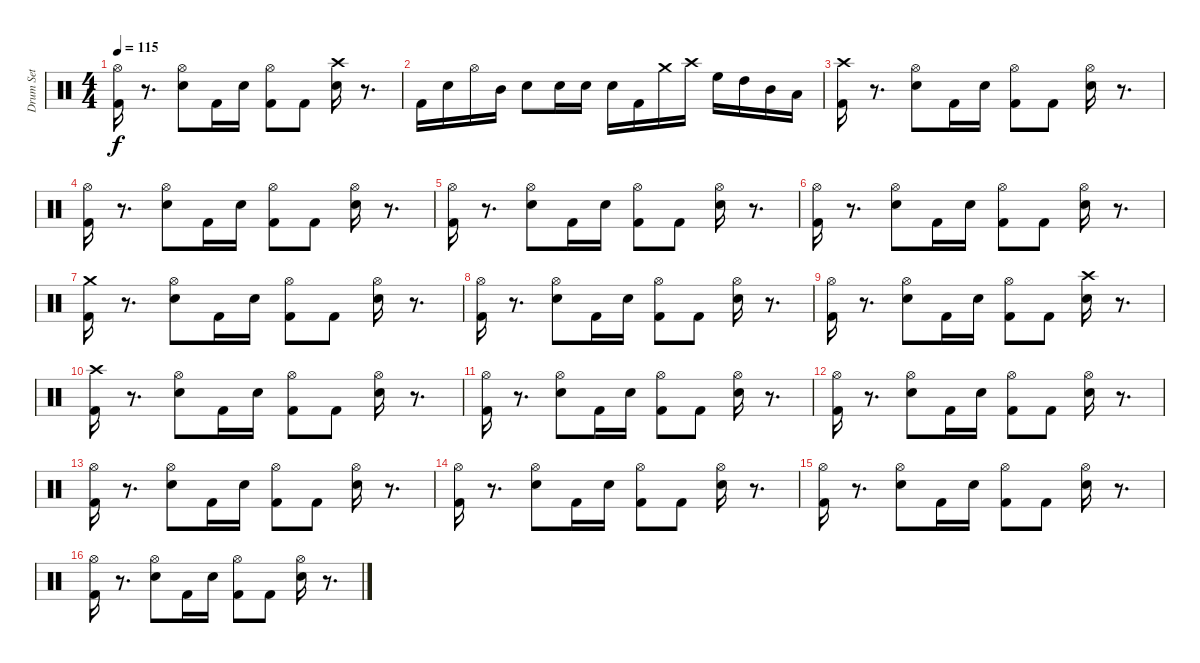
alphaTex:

\track ("Drum Set" "Drum Set") {instrument percussion}
\staff {score}
\articulation defaults
\ts (4 4)
\tempo 115
\clef neutral
\ks c
("Hi-Hat (open)" "Kick (hit) 2").16{dy f} r.8{d} ("Hi-Hat (open)" "Electric Snare (hit)").8 "Kick (hit) 2".16 "Electric Snare (hit)".16 ("Hi-Hat (open)" "Kick (hit) 2").8 "Kick (hit) 2".8 ("Crash high (hit)" "Electric Snare (hit)").16 r.8{d} |
"Kick (hit) 2".16 "Electric Snare (hit)".16 "Hi-Hat (open)".16 "Mid Tom (hit)".16 "Electric Snare (hit)".8 "Electric Snare (hit)".16 "Electric Snare (hit)".16 "Electric Snare (hit)".16 "Kick (hit) 2".16 "Crash medium (hit)".16 "Crash high (hit)".16 "High Floor Tom (hit)".16 "High Tom (hit)".16 "Mid Tom (hit)".16 "Low Tom (hit)".16 |
("Crash high (hit)" "Kick (hit) 2").16 r.8{d} ("Hi-Hat (open)" "Electric Snare (hit)").8 "Kick (hit) 2".16 "Electric Snare (hit)".16 ("Hi-Hat (open)" "Kick (hit) 2").8 "Kick (hit) 2".8 ("Hi-Hat (open)" "Electric Snare (hit)").16 r.8{d} |
("Hi-Hat (open)" "Kick (hit) 2").16 r.8{d} ("Hi-Hat (open)" "Electric Snare (hit)").8 "Kick (hit) 2".16 "Electric Snare (hit)".16 ("Hi-Hat (open)" "Kick (hit) 2").8 "Kick (hit) 2".8 ("Hi-Hat (open)" "Electric Snare (hit)").16 r.8{d} |
("Hi-Hat (open)" "Kick (hit) 2").16 r.8{d} ("Hi-Hat (open)" "Electric Snare (hit)").8 "Kick (hit) 2".16 "Electric Snare (hit)".16 ("Hi-Hat (open)" "Kick (hit) 2").8 "Kick (hit) 2".8 ("Hi-Hat (open)" "Electric Snare (hit)").16 r.8{d} |
("Hi-Hat (open)" "Kick (hit) 2").16 r.8{d} ("Hi-Hat (open)" "Electric Snare (hit)").8 "Kick (hit) 2".16 "Electric Snare (hit)".16 ("Hi-Hat (open)" "Kick (hit) 2").8 "Kick (hit) 2".8 ("Hi-Hat (open)" "Electric Snare (hit)").16 r.8{d} |
("Crash medium (hit)" "Kick (hit) 2").16 r.8{d} ("Hi-Hat (open)" "Electric Snare (hit)").8 "Kick (hit) 2".16 "Electric Snare (hit)".16 ("Hi-Hat (open)" "Kick (hit) 2").8 "Kick (hit) 2".8 ("Hi-Hat (open)" "Electric Snare (hit)").16 r.8{d} |
("Hi-Hat (open)" "Kick (hit) 2").16 r.8{d} ("Hi-Hat (open)" "Electric Snare (hit)").8 "Kick (hit) 2".16 "Electric Snare (hit)".16 ("Hi-Hat (open)" "Kick (hit) 2").8 "Kick (hit) 2".8 ("Hi-Hat (open)" "Electric Snare (hit)").16 r.8{d} |
("Hi-Hat (open)" "Kick (hit) 2").16 r.8{d} ("Hi-Hat (open)" "Electric Snare (hit)").8 "Kick (hit) 2".16 "Electric Snare (hit)".16 ("Hi-Hat (open)" "Kick (hit) 2").8 "Kick (hit) 2".8 ("Crash high (hit)" "Electric Snare (hit)").16 r.8{d} |
("Crash high (hit)" "Kick (hit) 2").16 r.8{d} ("Hi-Hat (open)" "Electric Snare (hit)").8 "Kick (hit) 2".16 "Electric Snare (hit)".16 ("Hi-Hat (open)" "Kick (hit) 2").8 "Kick (hit) 2".8 ("Hi-Hat (open)" "Electric Snare (hit)").16 r.8{d} |
("Hi-Hat (open)" "Kick (hit) 2").16 r.8{d} ("Hi-Hat (open)" "Electric Snare (hit)").8 "Kick (hit) 2".16 "Electric Snare (hit)".16 ("Hi-Hat (open)" "Kick (hit) 2").8 "Kick (hit) 2".8 ("Hi-Hat (open)" "Electric Snare (hit)").16 r.8{d} |
("Hi-Hat (open)" "Kick (hit) 2").16 r.8{d} ("Hi-Hat (open)" "Electric Snare (hit)").8 "Kick (hit) 2".16 "Electric Snare (hit)".16 ("Hi-Hat (open)" "Kick (hit) 2").8 "Kick (hit) 2".8 ("Hi-Hat (open)" "Electric Snare (hit)").16 r.8{d} |
("Hi-Hat (open)" "Kick (hit) 2").16 r.8{d} ("Hi-Hat (open)" "Electric Snare (hit)").8 "Kick (hit) 2".16 "Electric Snare (hit)".16 ("Hi-Hat (open)" "Kick (hit) 2").8 "Kick (hit) 2".8 ("Hi-Hat (open)" "Electric Snare (hit)").16 r.8{d} |
("Hi-Hat (open)" "Kick (hit) 2").16 r.8{d} ("Hi-Hat (open)" "Electric Snare (hit)").8 "Kick (hit) 2".16 "Electric Snare (hit)".16 ("Hi-Hat (open)" "Kick (hit) 2").8 "Kick (hit) 2".8 ("Hi-Hat (open)" "Electric Snare (hit)").16 r.8{d} |
("Hi-Hat (open)" "Kick (hit) 2").16 r.8{d} ("Hi-Hat (open)" "Electric Snare (hit)").8 "Kick (hit) 2".16 "Electric Snare (hit)".16 ("Hi-Hat (open)" "Kick (hit) 2").8 "Kick (hit) 2".8 ("Hi-Hat (open)" "Electric Snare (hit)").16 r.8{d} |
("Hi-Hat (open)" "Kick (hit) 2").16 r.8{d} ("Hi-Hat (open)" "Electric Snare (hit)").8 "Kick (hit) 2".16 "Electric Snare (hit)".16 ("Hi-Hat (open)" "Kick (hit) 2").8 "Kick (hit) 2".8 ("Hi-Hat (open)" "Electric Snare (hit)").16 r.8{d}
